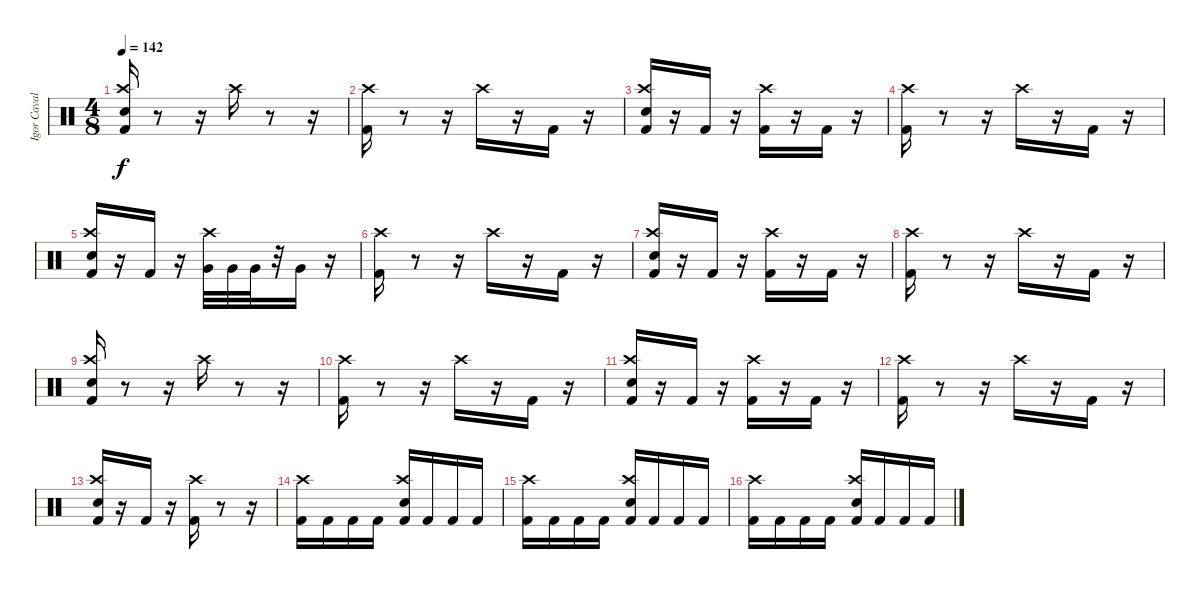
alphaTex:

\track ("Igor Cavalera" "Igor Caval") {instrument percussion}
\staff {score}
\articulation defaults
\ts (4 8)
\tempo 142
\clef neutral
\ks c
("Kick (hit) 2" "Crash high (hit)" "Electric Snare (hit)").16{dy f} r.8 r.16 "Crash high (hit)".16 r.8 r.16 |
("Kick (hit) 2" "Crash high (hit)").16 r.8 r.16 "Crash high (hit)".16 r.16 "Kick (hit) 2".16 r.16 |
("Electric Snare (hit)" "Kick (hit) 2" "Crash high (hit)").16 r.16 "Kick (hit) 2".16 r.16 ("Crash high (hit)" "Kick (hit) 2").16 r.16 "Kick (hit) 2".16 r.16 |
("Kick (hit) 2" "Crash high (hit)").16 r.8 r.16 "Crash high (hit)".16 r.16 "Kick (hit) 2".16 r.16 |
("Kick (hit) 2" "Crash high (hit)" "Electric Snare (hit)").16 r.16 "Kick (hit) 2".16 r.16 ("Crash high (hit)" "Very Low Tom (hit)").32 "Very Low Tom (hit)".32 "Very Low Tom (hit)".32 r.32 "Very Low Tom (hit)".16 r.16 |
("Kick (hit) 2" "Crash high (hit)").16 r.8 r.16 "Crash high (hit)".16 r.16 "Kick (hit) 2".16 r.16 |
("Electric Snare (hit)" "Kick (hit) 2" "Crash high (hit)").16 r.16 "Kick (hit) 2".16 r.16 ("Crash high (hit)" "Kick (hit) 2").16 r.16 "Kick (hit) 2".16 r.16 |
("Kick (hit) 2" "Crash high (hit)").16 r.8 r.16 "Crash high (hit)".16 r.16 "Kick (hit) 2".16 r.16 |
("Kick (hit) 2" "Crash high (hit)" "Electric Snare (hit)").16 r.8 r.16 "Crash high (hit)".16 r.8 r.16 |
("Kick (hit) 2" "Crash high (hit)").16 r.8 r.16 "Crash high (hit)".16 r.16 "Kick (hit) 2".16 r.16 |
("Electric Snare (hit)" "Kick (hit) 2" "Crash high (hit)").16 r.16 "Kick (hit) 2".16 r.16 ("Crash high (hit)" "Kick (hit) 2").16 r.16 "Kick (hit) 2".16 r.16 |
("Kick (hit) 2" "Crash high (hit)").16 r.8 r.16 "Crash high (hit)".16 r.16 "Kick (hit) 2".16 r.16 |
("Kick (hit) 2" "Crash high (hit)" "Electric Snare (hit)").16 r.16 "Kick (hit) 2".16 r.16 ("Crash high (hit)" "Kick (hit) 2").16 r.8 r.16 |
("Kick (hit) 2" "Crash high (hit)").16 "Kick (hit) 2".16 "Kick (hit) 2".16 "Kick (hit) 2".16 ("Kick (hit) 2" "Electric Snare (hit)" "Crash high (hit)").16 "Kick (hit) 2".16 "Kick (hit) 2".16 "Kick (hit) 2".16 |
("Kick (hit) 2" "Crash high (hit)").16 "Kick (hit) 2".16 "Kick (hit) 2".16 "Kick (hit) 2".16 ("Kick (hit) 2" "Electric Snare (hit)" "Crash high (hit)").16 "Kick (hit) 2".16 "Kick (hit) 2".16 "Kick (hit) 2".16 |
("Kick (hit) 2" "Crash high (hit)").16 "Kick (hit) 2".16 "Kick (hit) 2".16 "Kick (hit) 2".16 ("Kick (hit) 2" "Electric Snare (hit)" "Crash high (hit)").16 "Kick (hit) 2".16 "Kick (hit) 2".16 "Kick (hit) 2".16
